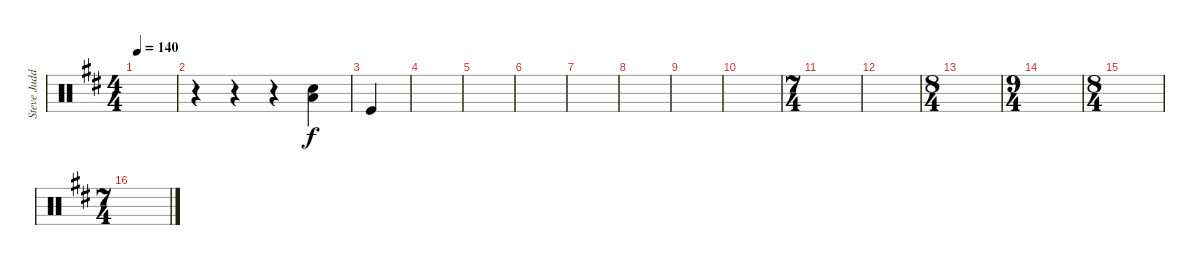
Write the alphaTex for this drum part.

\track ("Steve Judd" "Steve Judd") {instrument percussion}
\staff {score}
\articulation defaults
\ts (4 4)
\tempo 140
\clef neutral
\ks bminor
|
r.4 r.4 r.4 ("Low Floor Tom (hit)" "Snare (hit) 2").4 |
"Kick (hit)".4 |
|
|
|
|
|
|
|
\ts (7 4)
|
|
\ts (8 4)
|
\ts (9 4)
|
\ts (8 4)
|
\ts (7 4)
